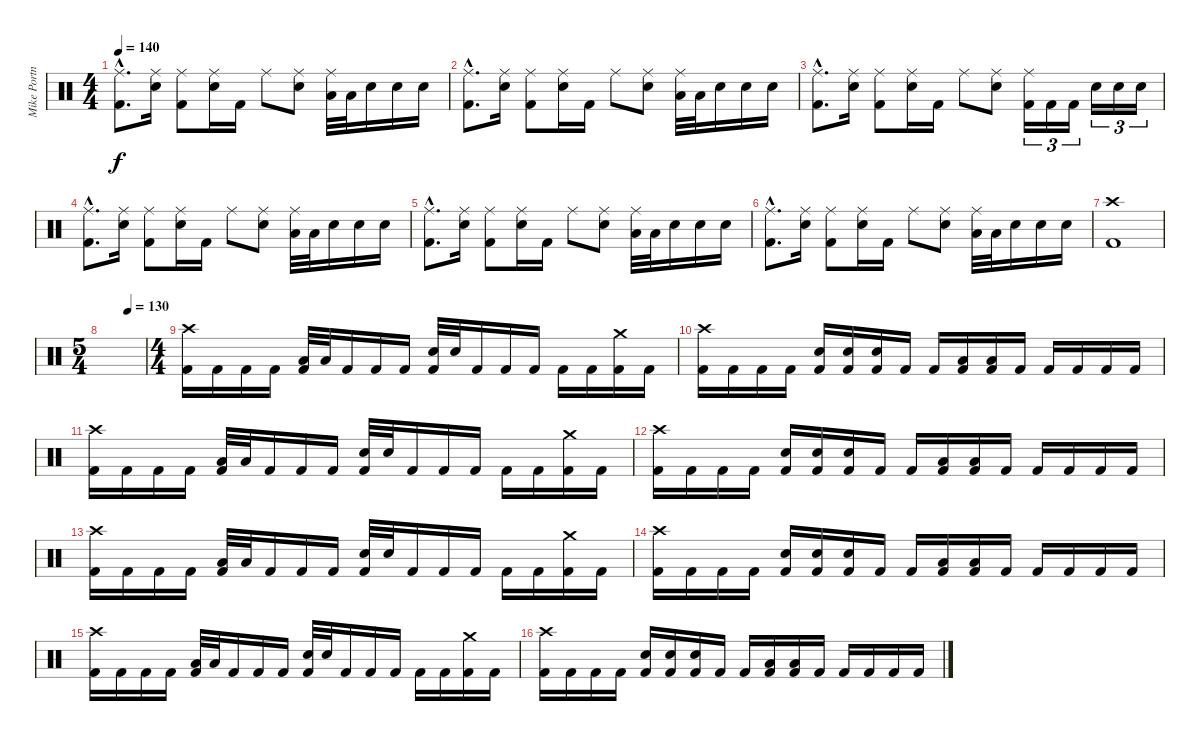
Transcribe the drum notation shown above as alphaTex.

\track ("Mike Portnoy" "Mike Portn") {instrument percussion}
\staff {score}
\articulation defaults
\ts (4 4)
\tempo 140
\clef neutral
\ks c
("Ride (middle)"{hac} "Kick (hit) 2"{hac}).8{d dy f} ("Ride (middle)" "Snare (hit) 2").16 ("Ride (middle)" "Kick (hit) 2").8 ("Ride (middle)" "Snare (hit) 2").16 "Kick (hit) 2".16 "Ride (middle)".8 ("Ride (middle)" "Snare (hit) 2").8 ("Ride (middle)" "Low Tom (hit)").32 "Low Tom (hit)".32 "Snare (hit) 2".16 "Snare (hit) 2".16 "Snare (hit) 2".16 |
("Ride (middle)"{hac} "Kick (hit) 2"{hac}).8{d} ("Ride (middle)" "Snare (hit) 2").16 ("Ride (middle)" "Kick (hit) 2").8 ("Ride (middle)" "Snare (hit) 2").16 "Kick (hit) 2".16 "Ride (middle)".8 ("Ride (middle)" "Snare (hit) 2").8 ("Ride (middle)" "Low Tom (hit)").32 "Low Tom (hit)".32 "Snare (hit) 2".16 "Snare (hit) 2".16 "Snare (hit) 2".16 |
("Ride (middle)"{hac} "Kick (hit) 2"{hac}).8{d} ("Ride (middle)" "Snare (hit) 2").16 ("Ride (middle)" "Kick (hit) 2").8 ("Ride (middle)" "Snare (hit) 2").16 "Kick (hit) 2".16 "Ride (middle)".8 ("Ride (middle)" "Snare (hit) 2").8 ("Ride (middle)" "Kick (hit) 2").16{tu (3 2)} "Kick (hit) 2".16{tu (3 2)} "Kick (hit) 2".16{tu (3 2)} "Snare (hit) 2".16{tu (3 2)} "Snare (hit) 2".16{tu (3 2)} "Snare (hit) 2".16{tu (3 2)} |
("Ride (middle)"{hac} "Kick (hit) 2"{hac}).8{d} ("Ride (middle)" "Snare (hit) 2").16 ("Ride (middle)" "Kick (hit) 2").8 ("Ride (middle)" "Snare (hit) 2").16 "Kick (hit) 2".16 "Ride (middle)".8 ("Ride (middle)" "Snare (hit) 2").8 ("Ride (middle)" "Low Tom (hit)").32 "Low Tom (hit)".32 "Snare (hit) 2".16 "Snare (hit) 2".16 "Snare (hit) 2".16 |
("Ride (middle)"{hac} "Kick (hit) 2"{hac}).8{d} ("Ride (middle)" "Snare (hit) 2").16 ("Ride (middle)" "Kick (hit) 2").8 ("Ride (middle)" "Snare (hit) 2").16 "Kick (hit) 2".16 "Ride (middle)".8 ("Ride (middle)" "Snare (hit) 2").8 ("Ride (middle)" "Low Tom (hit)").32 "Low Tom (hit)".32 "Snare (hit) 2".16 "Snare (hit) 2".16 "Snare (hit) 2".16 |
("Ride (middle)"{hac} "Kick (hit) 2"{hac}).8{d} ("Ride (middle)" "Snare (hit) 2").16 ("Ride (middle)" "Kick (hit) 2").8 ("Ride (middle)" "Snare (hit) 2").16 "Kick (hit) 2".16 "Ride (middle)".8 ("Ride (middle)" "Snare (hit) 2").8 ("Ride (middle)" "Low Tom (hit)").32 "Low Tom (hit)".32 "Snare (hit) 2".16 "Snare (hit) 2".16 "Snare (hit) 2".16 |
("Crash high (hit)" "Kick (hit) 2").1 |
\ts (5 4)
\tempo (130 0.6)
|
\ts (4 4)
("Crash high (hit)" "Kick (hit) 2").16 "Kick (hit) 2".16 "Kick (hit) 2".16 "Kick (hit) 2".16 ("Low Tom (hit)" "Kick (hit) 2").32 "Low Tom (hit)".32 "Kick (hit) 2".16 "Kick (hit) 2".16 "Kick (hit) 2".16 ("Snare (hit) 2" "Kick (hit) 2").32 "Snare (hit) 2".32 "Kick (hit) 2".16 "Kick (hit) 2".16 "Kick (hit) 2".16 "Kick (hit) 2".16 "Kick (hit) 2".16 ("Crash medium (hit)" "Kick (hit) 2").16 "Kick (hit) 2".16 |
("Crash high (hit)" "Kick (hit) 2").16 "Kick (hit) 2".16 "Kick (hit) 2".16 "Kick (hit) 2".16 ("Snare (hit) 2" "Kick (hit) 2").16 ("Snare (hit) 2" "Kick (hit) 2").16 ("Snare (hit) 2" "Kick (hit) 2").16 "Kick (hit) 2".16 "Kick (hit) 2".16 ("Low Tom (hit)" "Kick (hit) 2").16 ("Low Tom (hit)" "Kick (hit) 2").16 "Kick (hit) 2".16 "Kick (hit) 2".16 "Kick (hit) 2".16 "Kick (hit) 2".16 "Kick (hit) 2".16 |
("Crash high (hit)" "Kick (hit) 2").16 "Kick (hit) 2".16 "Kick (hit) 2".16 "Kick (hit) 2".16 ("Low Tom (hit)" "Kick (hit) 2").32 "Low Tom (hit)".32 "Kick (hit) 2".16 "Kick (hit) 2".16 "Kick (hit) 2".16 ("Snare (hit) 2" "Kick (hit) 2").32 "Snare (hit) 2".32 "Kick (hit) 2".16 "Kick (hit) 2".16 "Kick (hit) 2".16 "Kick (hit) 2".16 "Kick (hit) 2".16 ("Crash medium (hit)" "Kick (hit) 2").16 "Kick (hit) 2".16 |
("Crash high (hit)" "Kick (hit) 2").16 "Kick (hit) 2".16 "Kick (hit) 2".16 "Kick (hit) 2".16 ("Snare (hit) 2" "Kick (hit) 2").16 ("Snare (hit) 2" "Kick (hit) 2").16 ("Snare (hit) 2" "Kick (hit) 2").16 "Kick (hit) 2".16 "Kick (hit) 2".16 ("Low Tom (hit)" "Kick (hit) 2").16 ("Low Tom (hit)" "Kick (hit) 2").16 "Kick (hit) 2".16 "Kick (hit) 2".16 "Kick (hit) 2".16 "Kick (hit) 2".16 "Kick (hit) 2".16 |
("Crash high (hit)" "Kick (hit) 2").16 "Kick (hit) 2".16 "Kick (hit) 2".16 "Kick (hit) 2".16 ("Low Tom (hit)" "Kick (hit) 2").32 "Low Tom (hit)".32 "Kick (hit) 2".16 "Kick (hit) 2".16 "Kick (hit) 2".16 ("Snare (hit) 2" "Kick (hit) 2").32 "Snare (hit) 2".32 "Kick (hit) 2".16 "Kick (hit) 2".16 "Kick (hit) 2".16 "Kick (hit) 2".16 "Kick (hit) 2".16 ("Crash medium (hit)" "Kick (hit) 2").16 "Kick (hit) 2".16 |
("Crash high (hit)" "Kick (hit) 2").16 "Kick (hit) 2".16 "Kick (hit) 2".16 "Kick (hit) 2".16 ("Snare (hit) 2" "Kick (hit) 2").16 ("Snare (hit) 2" "Kick (hit) 2").16 ("Snare (hit) 2" "Kick (hit) 2").16 "Kick (hit) 2".16 "Kick (hit) 2".16 ("Low Tom (hit)" "Kick (hit) 2").16 ("Low Tom (hit)" "Kick (hit) 2").16 "Kick (hit) 2".16 "Kick (hit) 2".16 "Kick (hit) 2".16 "Kick (hit) 2".16 "Kick (hit) 2".16 |
("Crash high (hit)" "Kick (hit) 2").16 "Kick (hit) 2".16 "Kick (hit) 2".16 "Kick (hit) 2".16 ("Low Tom (hit)" "Kick (hit) 2").32 "Low Tom (hit)".32 "Kick (hit) 2".16 "Kick (hit) 2".16 "Kick (hit) 2".16 ("Snare (hit) 2" "Kick (hit) 2").32 "Snare (hit) 2".32 "Kick (hit) 2".16 "Kick (hit) 2".16 "Kick (hit) 2".16 "Kick (hit) 2".16 "Kick (hit) 2".16 ("Crash medium (hit)" "Kick (hit) 2").16 "Kick (hit) 2".16 |
("Crash high (hit)" "Kick (hit) 2").16 "Kick (hit) 2".16 "Kick (hit) 2".16 "Kick (hit) 2".16 ("Snare (hit) 2" "Kick (hit) 2").16 ("Snare (hit) 2" "Kick (hit) 2").16 ("Snare (hit) 2" "Kick (hit) 2").16 "Kick (hit) 2".16 "Kick (hit) 2".16 ("Low Tom (hit)" "Kick (hit) 2").16 ("Low Tom (hit)" "Kick (hit) 2").16 "Kick (hit) 2".16 "Kick (hit) 2".16 "Kick (hit) 2".16 "Kick (hit) 2".16 "Kick (hit) 2".16
